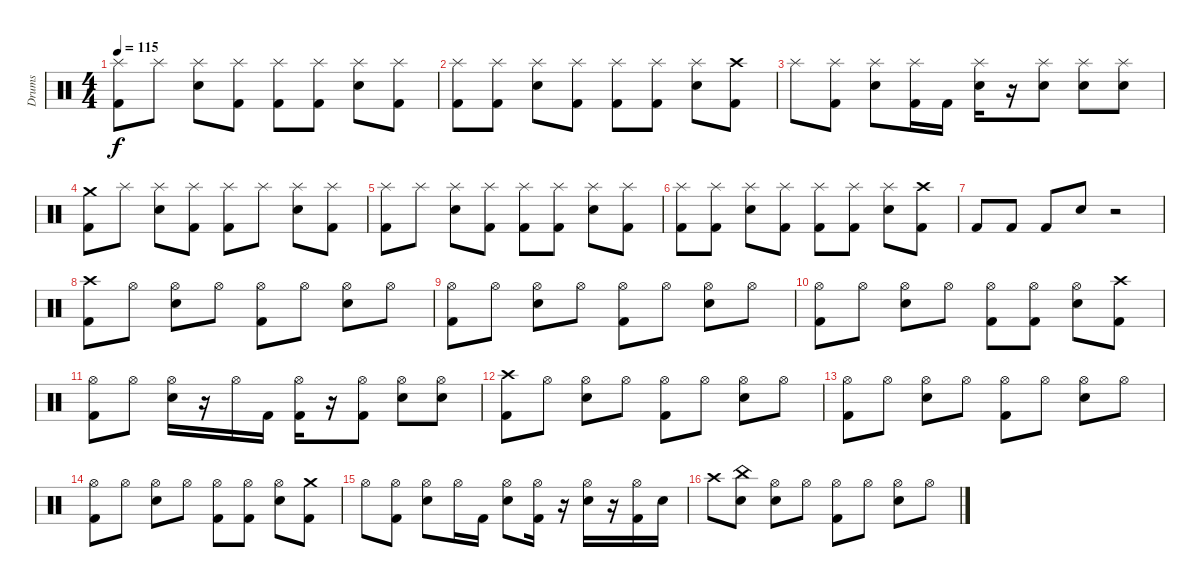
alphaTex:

\track ("Drums" "Drums") {instrument percussion}
\staff {score}
\articulation defaults
\ts (4 4)
\tempo 115
\clef neutral
\ks c
("Splash (hit)" "Kick (hit) 2").8{dy f} "Splash (hit)".8 ("Splash (hit)" "Snare (hit) 2").8 ("Splash (hit)" "Kick (hit) 2").8 ("Splash (hit)" "Kick (hit) 2").8 ("Splash (hit)" "Kick (hit) 2").8 ("Splash (hit)" "Snare (hit) 2").8 ("Splash (hit)" "Kick (hit) 2").8 |
("Splash (hit)" "Kick (hit) 2").8 ("Splash (hit)" "Kick (hit) 2").8 ("Splash (hit)" "Snare (hit) 2").8 ("Splash (hit)" "Kick (hit) 2").8 ("Splash (hit)" "Kick (hit) 2").8 ("Splash (hit)" "Kick (hit) 2").8 ("Splash (hit)" "Snare (hit) 2").8 ("Crash high (hit)" "Kick (hit) 2").8 |
"Splash (hit)".8 ("Splash (hit)" "Kick (hit) 2").8 ("Splash (hit)" "Snare (hit) 2").8 ("Splash (hit)" "Kick (hit) 2").16 "Kick (hit) 2".16 ("Splash (hit)" "Snare (hit) 2").16 r.16 ("Splash (hit)" "Snare (hit) 2").8 ("Splash (hit)" "Snare (hit) 2").8 ("Splash (hit)" "Snare (hit) 2").8 |
("Crash medium (hit)" "Kick (hit) 2").8 "Splash (hit)".8 ("Splash (hit)" "Snare (hit) 2").8 ("Splash (hit)" "Kick (hit) 2").8 ("Splash (hit)" "Kick (hit) 2").8 "Splash (hit)".8 ("Splash (hit)" "Snare (hit) 2").8 ("Splash (hit)" "Kick (hit) 2").8 |
("Splash (hit)" "Kick (hit) 2").8 "Splash (hit)".8 ("Splash (hit)" "Snare (hit) 2").8 ("Splash (hit)" "Kick (hit) 2").8 ("Splash (hit)" "Kick (hit) 2").8 ("Splash (hit)" "Kick (hit) 2").8 ("Splash (hit)" "Snare (hit) 2").8 ("Splash (hit)" "Kick (hit) 2").8 |
("Splash (hit)" "Kick (hit) 2").8 ("Splash (hit)" "Kick (hit) 2").8 ("Splash (hit)" "Snare (hit) 2").8 ("Splash (hit)" "Kick (hit) 2").8 ("Splash (hit)" "Kick (hit) 2").8 ("Splash (hit)" "Kick (hit) 2").8 ("Splash (hit)" "Snare (hit) 2").8 ("Crash high (hit)" "Kick (hit) 2").8 |
"Kick (hit) 2".8 "Kick (hit) 2".8 "Kick (hit) 2".8 "Snare (hit) 2".8 r.2 |
("Crash high (hit)" "Kick (hit) 2").8 "Hi-Hat (open)".8 ("Hi-Hat (open)" "Snare (hit) 2").8 "Hi-Hat (open)".8 ("Hi-Hat (open)" "Kick (hit) 2").8 "Hi-Hat (open)".8 ("Hi-Hat (open)" "Snare (hit) 2").8 "Hi-Hat (open)".8 |
("Hi-Hat (open)" "Kick (hit) 2").8 "Hi-Hat (open)".8 ("Hi-Hat (open)" "Snare (hit) 2").8 "Hi-Hat (open)".8 ("Hi-Hat (open)" "Kick (hit) 2").8 "Hi-Hat (open)".8 ("Hi-Hat (open)" "Snare (hit) 2").8 "Hi-Hat (open)".8 |
("Hi-Hat (open)" "Kick (hit) 2").8 "Hi-Hat (open)".8 ("Hi-Hat (open)" "Snare (hit) 2").8 "Hi-Hat (open)".8 ("Hi-Hat (open)" "Kick (hit) 2").8 ("Hi-Hat (open)" "Kick (hit) 2").8 ("Hi-Hat (open)" "Snare (hit) 2").8 ("Crash high (hit)" "Kick (hit) 2").8 |
("Hi-Hat (open)" "Kick (hit) 2").8 "Hi-Hat (open)".8 ("Hi-Hat (open)" "Snare (hit) 2").16 r.16 "Hi-Hat (open)".16 "Kick (hit) 2".16 ("Hi-Hat (open)" "Kick (hit) 2").16 r.16 ("Hi-Hat (open)" "Kick (hit) 2").8 ("Hi-Hat (open)" "Snare (hit) 2").8 ("Hi-Hat (open)" "Snare (hit) 2").8 |
("Crash high (hit)" "Kick (hit) 2").8 "Hi-Hat (open)".8 ("Hi-Hat (open)" "Snare (hit) 2").8 "Hi-Hat (open)".8 ("Hi-Hat (open)" "Kick (hit) 2").8 "Hi-Hat (open)".8 ("Hi-Hat (open)" "Snare (hit) 2").8 "Hi-Hat (open)".8 |
("Hi-Hat (open)" "Kick (hit) 2").8 "Hi-Hat (open)".8 ("Hi-Hat (open)" "Snare (hit) 2").8 "Hi-Hat (open)".8 ("Hi-Hat (open)" "Kick (hit) 2").8 "Hi-Hat (open)".8 ("Hi-Hat (open)" "Snare (hit) 2").8 "Hi-Hat (open)".8 |
("Hi-Hat (open)" "Kick (hit) 2").8 "Hi-Hat (open)".8 ("Hi-Hat (open)" "Snare (hit) 2").8 "Hi-Hat (open)".8 ("Hi-Hat (open)" "Kick (hit) 2").8 ("Hi-Hat (open)" "Kick (hit) 2").8 ("Hi-Hat (open)" "Snare (hit) 2").8 ("Crash medium (hit)" "Kick (hit) 2").8 |
"Hi-Hat (open)".8 ("Hi-Hat (open)" "Kick (hit) 2").8 ("Hi-Hat (open)" "Snare (hit) 2").8 "Hi-Hat (open)".16 "Kick (hit) 2".16 ("Hi-Hat (open)" "Snare (hit) 2").8 ("Hi-Hat (open)" "Kick (hit) 2").16 r.16 ("Hi-Hat (open)" "Snare (hit) 2").16 r.16 ("Hi-Hat (open)" "Kick (hit) 2").16 "Snare (hit) 2".16 |
"Crash high (hit)".8 ("China (hit)" "Snare (hit) 2").8 ("Hi-Hat (open)" "Snare (hit) 2").8 "Hi-Hat (open)".8 ("Hi-Hat (open)" "Kick (hit) 2").8 "Hi-Hat (open)".8 ("Hi-Hat (open)" "Snare (hit) 2").8 "Hi-Hat (open)".8
